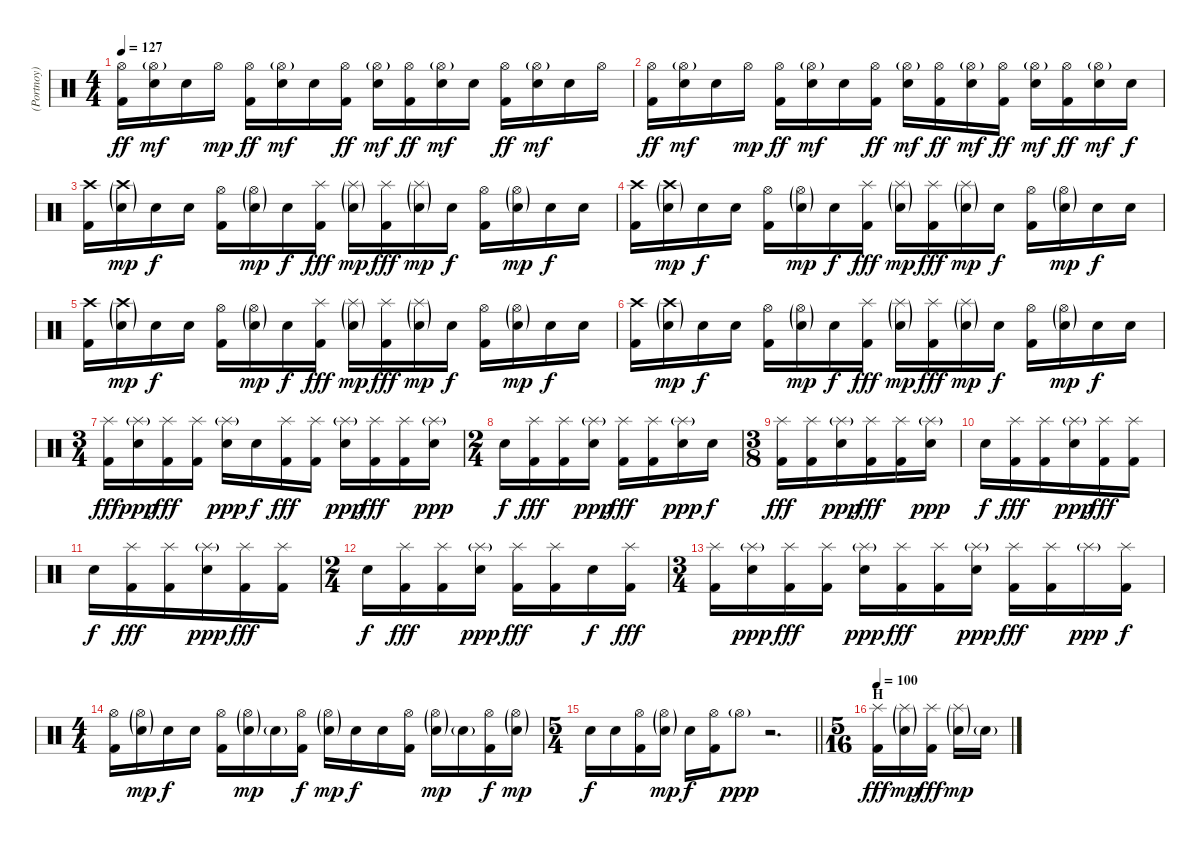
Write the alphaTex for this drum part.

\track ("(Portnoy) Drums" "(Portnoy) ") {instrument percussion}
\staff {score}
\articulation defaults
\ts (4 4)
\tempo 127
\clef neutral
\ks aminor
("Hi-Hat (open)" "Kick (hit) 2").16{dy ff} ("Hi-Hat (open)"{g} "Snare (hit) 2").16{dy mf} "Snare (hit) 2".16 "Hi-Hat (open)".16{dy mp} ("Hi-Hat (open)" "Kick (hit) 2").16{dy ff} ("Hi-Hat (open)"{g} "Snare (hit) 2").16{dy mf} "Snare (hit) 2".16 ("Hi-Hat (open)" "Kick (hit) 2").16{dy ff} ("Hi-Hat (open)"{g} "Snare (hit) 2").16{dy mf} ("Hi-Hat (open)" "Kick (hit) 2").16{dy ff} ("Hi-Hat (open)"{g} "Snare (hit) 2").16{dy mf} "Snare (hit) 2".16 ("Hi-Hat (open)" "Kick (hit) 2").16{dy ff} ("Hi-Hat (open)"{g} "Snare (hit) 2").16{dy mf} "Snare (hit) 2".16 "Hi-Hat (open)".16 |
("Hi-Hat (open)" "Kick (hit) 2").16{dy ff} ("Hi-Hat (open)"{g} "Snare (hit) 2").16{dy mf} "Snare (hit) 2".16 "Hi-Hat (open)".16{dy mp} ("Hi-Hat (open)" "Kick (hit) 2").16{dy ff} ("Hi-Hat (open)"{g} "Snare (hit) 2").16{dy mf} "Snare (hit) 2".16 ("Hi-Hat (open)" "Kick (hit) 2").16{dy ff} ("Hi-Hat (open)"{g} "Snare (hit) 2").16{dy mf} ("Hi-Hat (open)" "Kick (hit) 2").16{dy ff} ("Hi-Hat (open)"{g} "Snare (hit) 2").16{dy mf} ("Hi-Hat (open)" "Kick (hit) 2").16{dy ff} ("Hi-Hat (open)"{g} "Snare (hit) 2").16{dy mf} ("Hi-Hat (open)" "Kick (hit) 2").16{dy ff} ("Hi-Hat (open)"{g} "Snare (hit) 2").16{dy mf} "Snare (hit) 2".16{dy f} |
("Crash high (hit)" "Kick (hit) 2").16 ("Crash high (hit)"{g} "Snare (hit) 2"{g}).16{dy mp} "Snare (hit) 2".16{dy f} "Snare (hit) 2".16 ("Hi-Hat (open)" "Kick (hit) 2").16 ("Hi-Hat (open)"{g} "Snare (hit) 2"{g}).16{dy mp} "Snare (hit) 2".16{dy f} ("Splash (hit)" "Kick (hit) 2").16{dy fff} ("Splash (hit)"{g} "Snare (hit) 2"{g}).16{dy mp} ("Splash (hit)" "Kick (hit) 2").16{dy fff} ("Splash (hit)"{g} "Snare (hit) 2"{g}).16{dy mp} "Snare (hit) 2".16{dy f} ("Hi-Hat (open)" "Kick (hit) 2").16 ("Hi-Hat (open)"{g} "Snare (hit) 2"{g}).16{dy mp} "Snare (hit) 2".16{dy f} "Snare (hit) 2".16 |
("Crash high (hit)" "Kick (hit) 2").16 ("Crash high (hit)"{g} "Snare (hit) 2"{g}).16{dy mp} "Snare (hit) 2".16{dy f} "Snare (hit) 2".16 ("Hi-Hat (open)" "Kick (hit) 2").16 ("Hi-Hat (open)"{g} "Snare (hit) 2"{g}).16{dy mp} "Snare (hit) 2".16{dy f} ("Splash (hit)" "Kick (hit) 2").16{dy fff} ("Splash (hit)"{g} "Snare (hit) 2"{g}).16{dy mp} ("Splash (hit)" "Kick (hit) 2").16{dy fff} ("Splash (hit)"{g} "Snare (hit) 2"{g}).16{dy mp} "Snare (hit) 2".16{dy f} ("Hi-Hat (open)" "Kick (hit) 2").16 ("Hi-Hat (open)"{g} "Snare (hit) 2"{g}).16{dy mp} "Snare (hit) 2".16{dy f} "Snare (hit) 2".16 |
("Crash high (hit)" "Kick (hit) 2").16 ("Crash high (hit)"{g} "Snare (hit) 2"{g}).16{dy mp} "Snare (hit) 2".16{dy f} "Snare (hit) 2".16 ("Hi-Hat (open)" "Kick (hit) 2").16 ("Hi-Hat (open)"{g} "Snare (hit) 2"{g}).16{dy mp} "Snare (hit) 2".16{dy f} ("Splash (hit)" "Kick (hit) 2").16{dy fff} ("Splash (hit)"{g} "Snare (hit) 2"{g}).16{dy mp} ("Splash (hit)" "Kick (hit) 2").16{dy fff} ("Splash (hit)"{g} "Snare (hit) 2"{g}).16{dy mp} "Snare (hit) 2".16{dy f} ("Hi-Hat (open)" "Kick (hit) 2").16 ("Hi-Hat (open)"{g} "Snare (hit) 2"{g}).16{dy mp} "Snare (hit) 2".16{dy f} "Snare (hit) 2".16 |
("Crash high (hit)" "Kick (hit) 2").16 ("Crash high (hit)"{g} "Snare (hit) 2"{g}).16{dy mp} "Snare (hit) 2".16{dy f} "Snare (hit) 2".16 ("Hi-Hat (open)" "Kick (hit) 2").16 ("Hi-Hat (open)"{g} "Snare (hit) 2"{g}).16{dy mp} "Snare (hit) 2".16{dy f} ("Splash (hit)" "Kick (hit) 2").16{dy fff} ("Splash (hit)"{g} "Snare (hit) 2"{g}).16{dy mp} ("Splash (hit)" "Kick (hit) 2").16{dy fff} ("Splash (hit)"{g} "Snare (hit) 2"{g}).16{dy mp} "Snare (hit) 2".16{dy f} ("Hi-Hat (open)" "Kick (hit) 2").16 ("Hi-Hat (open)"{g} "Snare (hit) 2"{g}).16{dy mp} "Snare (hit) 2".16{dy f} "Snare (hit) 2".16 |
\ts (3 4)
("Splash (hit)" "Kick (hit) 2").16{dy fff} ("Splash (hit)"{g} "Snare (hit) 2").16{dy ppp} ("Splash (hit)" "Kick (hit) 2").16{dy fff} ("Splash (hit)" "Kick (hit) 2").16 ("Splash (hit)"{g} "Snare (hit) 2").16{dy ppp} "Snare (hit) 2".16{dy f} ("Splash (hit)" "Kick (hit) 2").16{dy fff} ("Splash (hit)" "Kick (hit) 2").16 ("Splash (hit)"{g} "Snare (hit) 2").16{dy ppp} ("Splash (hit)" "Kick (hit) 2").16{dy fff} ("Splash (hit)" "Kick (hit) 2").16 ("Splash (hit)"{g} "Snare (hit) 2").16{dy ppp} |
\ts (2 4)
"Snare (hit) 2".16{dy f} ("Splash (hit)" "Kick (hit) 2").16{dy fff} ("Splash (hit)" "Kick (hit) 2").16 ("Splash (hit)"{g} "Snare (hit) 2").16{dy ppp} ("Splash (hit)" "Kick (hit) 2").16{dy fff} ("Splash (hit)" "Kick (hit) 2").16 ("Splash (hit)"{g} "Snare (hit) 2").16{dy ppp} "Snare (hit) 2".16{dy f} |
\ts (3 8)
("Splash (hit)" "Kick (hit) 2").16{dy fff} ("Splash (hit)" "Kick (hit) 2").16 ("Splash (hit)"{g} "Snare (hit) 2").16{dy ppp} ("Splash (hit)" "Kick (hit) 2").16{dy fff} ("Splash (hit)" "Kick (hit) 2").16 ("Splash (hit)"{g} "Snare (hit) 2").16{dy ppp} |
"Snare (hit) 2".16{dy f} ("Splash (hit)" "Kick (hit) 2").16{dy fff} ("Splash (hit)" "Kick (hit) 2").16 ("Splash (hit)"{g} "Snare (hit) 2").16{dy ppp} ("Splash (hit)" "Kick (hit) 2").16{dy fff} ("Splash (hit)" "Kick (hit) 2").16 |
"Snare (hit) 2".16{dy f} ("Splash (hit)" "Kick (hit) 2").16{dy fff} ("Splash (hit)" "Kick (hit) 2").16 ("Splash (hit)"{g} "Snare (hit) 2").16{dy ppp} ("Splash (hit)" "Kick (hit) 2").16{dy fff} ("Splash (hit)" "Kick (hit) 2").16 |
\ts (2 4)
"Snare (hit) 2".16{dy f} ("Splash (hit)" "Kick (hit) 2").16{dy fff} ("Splash (hit)" "Kick (hit) 2").16 ("Splash (hit)"{g} "Snare (hit) 2").16{dy ppp} ("Splash (hit)" "Kick (hit) 2").16{dy fff} ("Splash (hit)" "Kick (hit) 2").16 "Snare (hit) 2".16{dy f} ("Splash (hit)" "Kick (hit) 2").16{dy fff} |
\ts (3 4)
("Splash (hit)" "Kick (hit) 2").16 ("Splash (hit)"{g} "Snare (hit) 2").16{dy ppp} ("Splash (hit)" "Kick (hit) 2").16{dy fff} ("Splash (hit)" "Kick (hit) 2").16 ("Splash (hit)"{g} "Snare (hit) 2").16{dy ppp} ("Splash (hit)" "Kick (hit) 2").16{dy fff} ("Splash (hit)" "Kick (hit) 2").16 ("Splash (hit)"{g} "Snare (hit) 2").16{dy ppp} ("Splash (hit)" "Kick (hit) 2").16{dy fff} ("Splash (hit)" "Kick (hit) 2").16 "Splash (hit)"{g}.16{dy ppp} ("Splash (hit)" "Kick (hit) 2").16{dy f} |
\ts (4 4)
("Hi-Hat (open)" "Kick (hit) 2").16 ("Hi-Hat (open)"{g} "Snare (hit) 2"{g}).16{dy mp} "Snare (hit) 2".16{dy f} "Snare (hit) 2".16 ("Hi-Hat (open)" "Kick (hit) 2").16 ("Hi-Hat (open)"{g} "Snare (hit) 2"{g}).16{dy mp} "Snare (hit) 2"{g}.16 ("Hi-Hat (open)" "Kick (hit) 2").16{dy f} ("Hi-Hat (open)"{g} "Snare (hit) 2"{g}).16{dy mp} "Snare (hit) 2".16{dy f} "Snare (hit) 2".16 ("Hi-Hat (open)" "Kick (hit) 2").16 ("Hi-Hat (open)"{g} "Snare (hit) 2"{g}).16{dy mp} "Snare (hit) 2"{g}.16 ("Hi-Hat (open)" "Kick (hit) 2").16{dy f} ("Hi-Hat (open)"{g} "Snare (hit) 2"{g}).16{dy mp} |
\ts (5 4)
\barLineRight lightlight "Snare (hit) 2".16{dy f} "Snare (hit) 2".16
("Hi-Hat (open)" "Kick (hit) 2").16 ("Hi-Hat (open)"{g} "Snare (hit) 2"{g}).16{dy mp} "Snare (hit) 2".16{dy f} ("Hi-Hat (open)" "Kick (hit) 2").16 "Hi-Hat (open)"{g}.8{dy ppp} r.2{d} |
\ts (5 16)
\section ("" "H")
\tempo 100
("Splash (hit)" "Kick (hit) 2").16{dy fff} ("Splash (hit)"{g} "Snare (hit) 2"{g}).16{dy mp} ("Splash (hit)" "Kick (hit) 2").16{dy fff} ("Splash (hit)"{g} "Snare (hit) 2"{g}).16{dy mp} "Snare (hit) 2"{g}.16
